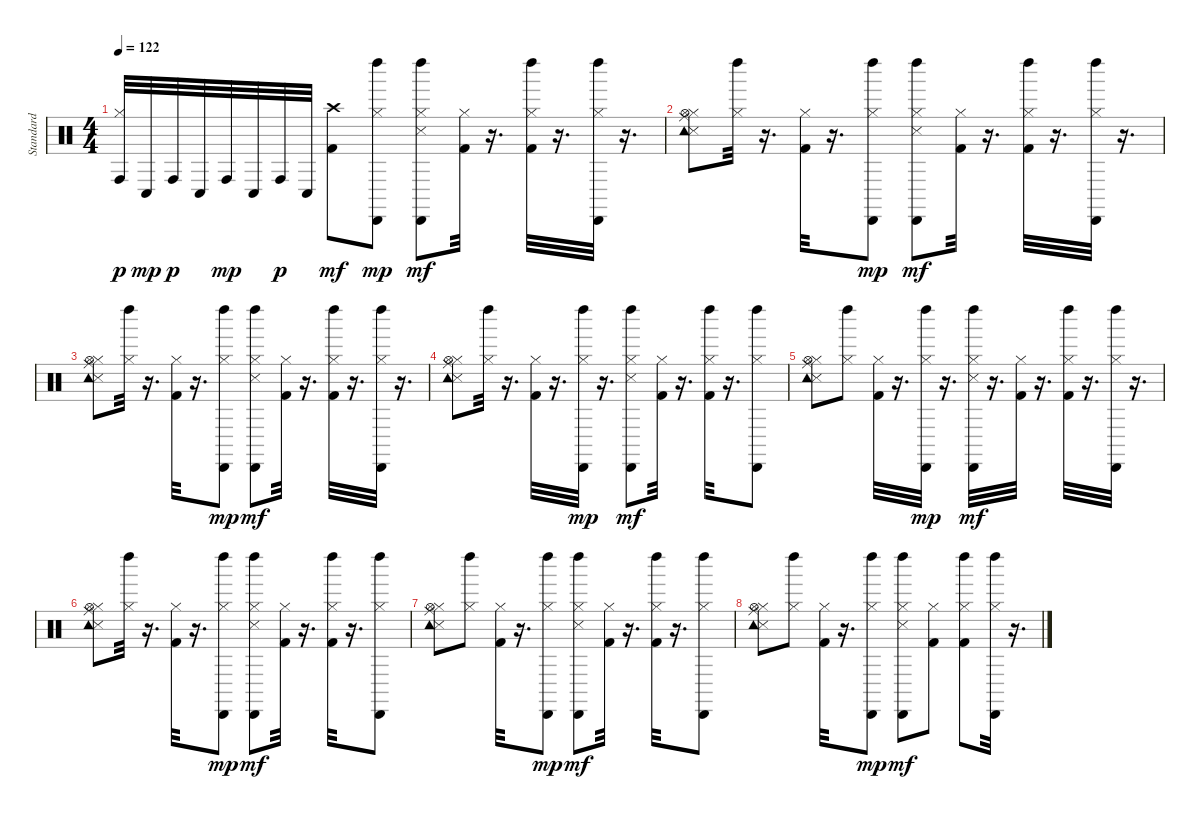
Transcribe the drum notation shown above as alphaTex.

\track (" Standard" " Standard") {instrument percussion}
\staff {score}
\articulation defaults
\ts (4 4)
\tempo 122
\clef neutral
\ks c
("Hi-Hat (closed)" "Conga high (hit)").32{dy p} "Conga low (hit)".32{dy mp} "Conga high (hit)".32{dy p} "Conga low (hit)".32 "Conga high (hit)".32{dy mp} "Conga low (hit)".32 "Conga high (hit)".32{dy p} "Conga low (hit)".32 ("Kick (hit) 2" "Crash high (hit)").8{dy mf} ("Hi-Hat (closed)" "Cabasa (hit)" "Left Maraca (hit)").8{dy mp} ("Snare (side stick) 3" "Hi-Hat (closed)" "Cabasa (hit)" "Left Maraca (hit)").8{dy mf} ("Kick (hit) 2" "Hi-Hat (closed)").32 r.16{d} ("Kick (hit) 2" "Hi-Hat (closed)" "Left Maraca (hit)").32 r.16{d} ("Hi-Hat (closed)" "Cabasa (hit)" "Left Maraca (hit)").32 r.16{d} |
("Snare (side stick) 3" "Hi-Hat (closed)" "Hi-Hat (open)" "Ride (middle)" "Tambourine (hit)").8 ("Hi-Hat (closed)" "Left Maraca (hit)").32 r.16{d} ("Kick (hit) 2" "Hi-Hat (closed)").32 r.16{d} ("Hi-Hat (closed)" "Cabasa (hit)" "Left Maraca (hit)").8{dy mp} ("Snare (side stick) 3" "Hi-Hat (closed)" "Cabasa (hit)" "Left Maraca (hit)").8{dy mf} ("Kick (hit) 2" "Hi-Hat (closed)").32 r.16{d} ("Kick (hit) 2" "Hi-Hat (closed)" "Left Maraca (hit)").32 r.16{d} ("Hi-Hat (closed)" "Cabasa (hit)" "Left Maraca (hit)").32 r.16{d} |
("Snare (side stick) 3" "Hi-Hat (closed)" "Hi-Hat (open)" "Ride (middle)" "Tambourine (hit)").8 ("Hi-Hat (closed)" "Left Maraca (hit)").32 r.16{d} ("Kick (hit) 2" "Hi-Hat (closed)").32 r.16{d} ("Hi-Hat (closed)" "Cabasa (hit)" "Left Maraca (hit)").8{dy mp} ("Snare (side stick) 3" "Hi-Hat (closed)" "Cabasa (hit)" "Left Maraca (hit)").8{dy mf} ("Kick (hit) 2" "Hi-Hat (closed)").32 r.16{d} ("Kick (hit) 2" "Hi-Hat (closed)" "Left Maraca (hit)").32 r.16{d} ("Hi-Hat (closed)" "Cabasa (hit)" "Left Maraca (hit)").32 r.16{d} |
("Snare (side stick) 3" "Hi-Hat (closed)" "Hi-Hat (open)" "Ride (middle)" "Tambourine (hit)").8 ("Hi-Hat (closed)" "Left Maraca (hit)").32 r.16{d} ("Kick (hit) 2" "Hi-Hat (closed)").32 r.16{d} ("Hi-Hat (closed)" "Cabasa (hit)" "Left Maraca (hit)").32{dy mp} r.16{d} ("Snare (side stick) 3" "Hi-Hat (closed)" "Cabasa (hit)" "Left Maraca (hit)").8{dy mf} ("Kick (hit) 2" "Hi-Hat (closed)").32 r.16{d} ("Kick (hit) 2" "Hi-Hat (closed)" "Left Maraca (hit)").32 r.16{d} ("Hi-Hat (closed)" "Cabasa (hit)" "Left Maraca (hit)").8 |
("Snare (side stick) 3" "Hi-Hat (closed)" "Hi-Hat (open)" "Ride (middle)" "Tambourine (hit)").8 ("Hi-Hat (closed)" "Left Maraca (hit)").8 ("Kick (hit) 2" "Hi-Hat (closed)").32 r.16{d} ("Hi-Hat (closed)" "Cabasa (hit)" "Left Maraca (hit)").32{dy mp} r.16{d} ("Snare (side stick) 3" "Hi-Hat (closed)" "Cabasa (hit)" "Left Maraca (hit)").32{dy mf} r.16{d} ("Kick (hit) 2" "Hi-Hat (closed)").32 r.16{d} ("Kick (hit) 2" "Hi-Hat (closed)" "Left Maraca (hit)").32 r.16{d} ("Hi-Hat (closed)" "Cabasa (hit)" "Left Maraca (hit)").32 r.16{d} |
("Snare (side stick) 3" "Hi-Hat (closed)" "Hi-Hat (open)" "Ride (middle)" "Tambourine (hit)").8 ("Hi-Hat (closed)" "Left Maraca (hit)").32 r.16{d} ("Kick (hit) 2" "Hi-Hat (closed)").32 r.16{d} ("Hi-Hat (closed)" "Cabasa (hit)" "Left Maraca (hit)").8{dy mp} ("Snare (side stick) 3" "Hi-Hat (closed)" "Cabasa (hit)" "Left Maraca (hit)").8{dy mf} ("Kick (hit) 2" "Hi-Hat (closed)").32 r.16{d} ("Kick (hit) 2" "Hi-Hat (closed)" "Left Maraca (hit)").32 r.16{d} ("Hi-Hat (closed)" "Cabasa (hit)" "Left Maraca (hit)").8 |
("Snare (side stick) 3" "Hi-Hat (closed)" "Hi-Hat (open)" "Ride (middle)" "Tambourine (hit)").8 ("Hi-Hat (closed)" "Left Maraca (hit)").8 ("Kick (hit) 2" "Hi-Hat (closed)").32 r.16{d} ("Hi-Hat (closed)" "Cabasa (hit)" "Left Maraca (hit)").8{dy mp} ("Snare (side stick) 3" "Hi-Hat (closed)" "Cabasa (hit)" "Left Maraca (hit)").8{dy mf} ("Kick (hit) 2" "Hi-Hat (closed)").32 r.16{d} ("Kick (hit) 2" "Hi-Hat (closed)" "Left Maraca (hit)").32 r.16{d} ("Hi-Hat (closed)" "Cabasa (hit)" "Left Maraca (hit)").8 |
("Snare (side stick) 3" "Hi-Hat (closed)" "Hi-Hat (open)" "Ride (middle)" "Tambourine (hit)").8 ("Hi-Hat (closed)" "Left Maraca (hit)").8 ("Kick (hit) 2" "Hi-Hat (closed)").32 r.16{d} ("Hi-Hat (closed)" "Cabasa (hit)" "Left Maraca (hit)").8{dy mp} ("Snare (side stick) 3" "Hi-Hat (closed)" "Cabasa (hit)" "Left Maraca (hit)").8{dy mf} ("Kick (hit) 2" "Hi-Hat (closed)").8 ("Kick (hit) 2" "Hi-Hat (closed)" "Left Maraca (hit)").8 ("Hi-Hat (closed)" "Cabasa (hit)" "Left Maraca (hit)").32 r.16{d}
